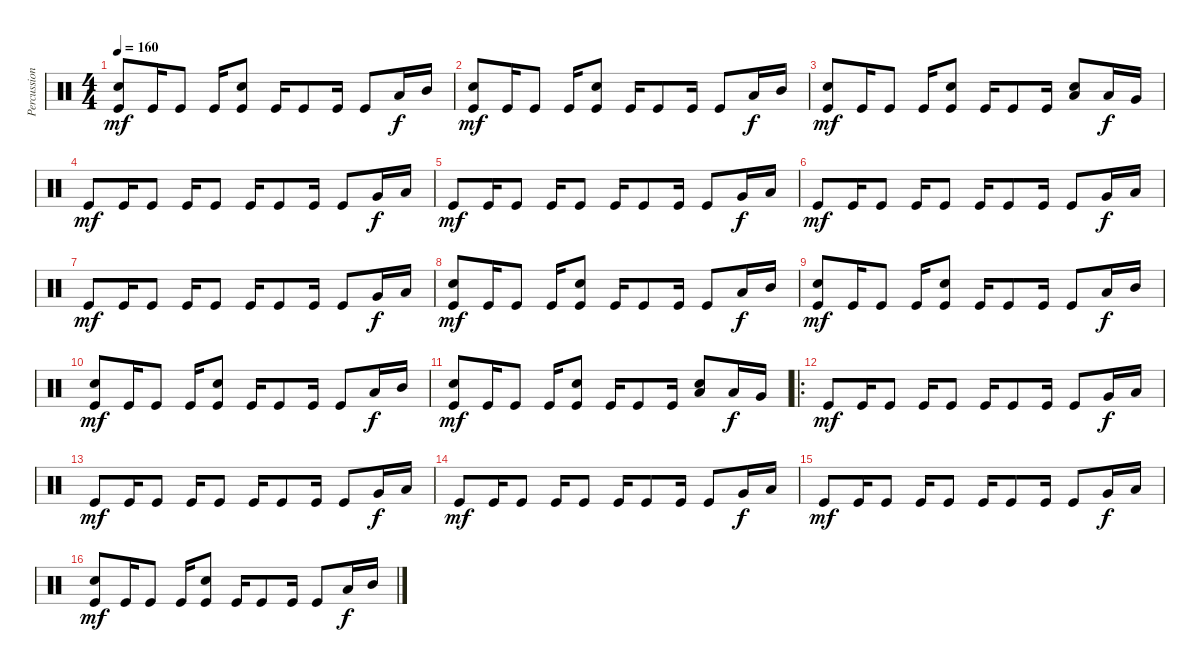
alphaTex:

\track ("Percussion" "Percussion") {instrument percussion}
\staff {score}
\articulation defaults
\ts (4 4)
\tempo 160
\clef neutral
\ks c
("Kick (hit)" "Electric Snare (hit)").8{dy mf} "Kick (hit)".16 "Kick (hit)".8 "Kick (hit)".16 ("Kick (hit)" "Electric Snare (hit)").8 "Kick (hit)".16 "Kick (hit)".8 "Kick (hit)".16 "Kick (hit)".8 "Low Tom (hit)".16{dy f} "Mid Tom (hit)".16 |
("Kick (hit)" "Electric Snare (hit)").8{dy mf} "Kick (hit)".16 "Kick (hit)".8 "Kick (hit)".16 ("Kick (hit)" "Snare (hit) 2").8 "Kick (hit)".16 "Kick (hit)".8 "Kick (hit)".16 "Kick (hit)".8 "Low Tom (hit)".16{dy f} "Mid Tom (hit)".16 |
("Kick (hit)" "Electric Snare (hit)").8{dy mf} "Kick (hit)".16 "Kick (hit)".8 "Kick (hit)".16 ("Kick (hit)" "Electric Snare (hit)").8 "Kick (hit)".16 "Kick (hit)".8 "Kick (hit)".16 ("Low Tom (hit)" "Electric Snare (hit)").8 "Low Tom (hit)".16{dy f} "Very Low Tom (hit)".16 |
"Kick (hit)".8{dy mf} "Kick (hit)".16 "Kick (hit)".8 "Kick (hit)".16 "Kick (hit)".8 "Kick (hit)".16 "Kick (hit)".8 "Kick (hit)".16 "Kick (hit)".8 "Very Low Tom (hit)".16{dy f} "Low Tom (hit)".16 |
"Kick (hit)".8{dy mf} "Kick (hit)".16 "Kick (hit)".8 "Kick (hit)".16 "Kick (hit)".8 "Kick (hit)".16 "Kick (hit)".8 "Kick (hit)".16 "Kick (hit)".8 "Very Low Tom (hit)".16{dy f} "Low Tom (hit)".16 |
"Kick (hit)".8{dy mf} "Kick (hit)".16 "Kick (hit)".8 "Kick (hit)".16 "Kick (hit)".8 "Kick (hit)".16 "Kick (hit)".8 "Kick (hit)".16 "Kick (hit)".8 "Very Low Tom (hit)".16{dy f} "Low Tom (hit)".16 |
"Kick (hit)".8{dy mf} "Kick (hit)".16 "Kick (hit)".8 "Kick (hit)".16 "Kick (hit)".8 "Kick (hit)".16 "Kick (hit)".8 "Kick (hit)".16 "Kick (hit)".8 "Very Low Tom (hit)".16{dy f} "Low Tom (hit)".16 |
("Kick (hit)" "Electric Snare (hit)").8{dy mf} "Kick (hit)".16 "Kick (hit)".8 "Kick (hit)".16 ("Kick (hit)" "Snare (hit) 2").8 "Kick (hit)".16 "Kick (hit)".8 "Kick (hit)".16 "Kick (hit)".8 "Low Tom (hit)".16{dy f} "Mid Tom (hit)".16 |
("Kick (hit)" "Electric Snare (hit)").8{dy mf} "Kick (hit)".16 "Kick (hit)".8 "Kick (hit)".16 ("Kick (hit)" "Electric Snare (hit)").8 "Kick (hit)".16 "Kick (hit)".8 "Kick (hit)".16 "Kick (hit)".8 "Low Tom (hit)".16{dy f} "Mid Tom (hit)".16 |
("Kick (hit)" "Electric Snare (hit)").8{dy mf} "Kick (hit)".16 "Kick (hit)".8 "Kick (hit)".16 ("Kick (hit)" "Snare (hit) 2").8 "Kick (hit)".16 "Kick (hit)".8 "Kick (hit)".16 "Kick (hit)".8 "Low Tom (hit)".16{dy f} "Mid Tom (hit)".16 |
("Kick (hit)" "Electric Snare (hit)").8{dy mf} "Kick (hit)".16 "Kick (hit)".8 "Kick (hit)".16 ("Kick (hit)" "Electric Snare (hit)").8 "Kick (hit)".16 "Kick (hit)".8 "Kick (hit)".16 ("Low Tom (hit)" "Electric Snare (hit)").8 "Low Tom (hit)".16{dy f} "Very Low Tom (hit)".16 |
\ro "Kick (hit)".8{dy mf} "Kick (hit)".16 "Kick (hit)".8 "Kick (hit)".16 "Kick (hit)".8 "Kick (hit)".16 "Kick (hit)".8 "Kick (hit)".16 "Kick (hit)".8 "Very Low Tom (hit)".16{dy f} "Low Tom (hit)".16
|
"Kick (hit)".8{dy mf} "Kick (hit)".16 "Kick (hit)".8 "Kick (hit)".16 "Kick (hit)".8 "Kick (hit)".16 "Kick (hit)".8 "Kick (hit)".16 "Kick (hit)".8 "Very Low Tom (hit)".16{dy f} "Low Tom (hit)".16 |
"Kick (hit)".8{dy mf} "Kick (hit)".16 "Kick (hit)".8 "Kick (hit)".16 "Kick (hit)".8 "Kick (hit)".16 "Kick (hit)".8 "Kick (hit)".16 "Kick (hit)".8 "Very Low Tom (hit)".16{dy f} "Low Tom (hit)".16 |
"Kick (hit)".8{dy mf} "Kick (hit)".16 "Kick (hit)".8 "Kick (hit)".16 "Kick (hit)".8 "Kick (hit)".16 "Kick (hit)".8 "Kick (hit)".16 "Kick (hit)".8 "Very Low Tom (hit)".16{dy f} "Low Tom (hit)".16 |
("Kick (hit)" "Electric Snare (hit)").8{dy mf} "Kick (hit)".16 "Kick (hit)".8 "Kick (hit)".16 ("Kick (hit)" "Snare (hit) 2").8 "Kick (hit)".16 "Kick (hit)".8 "Kick (hit)".16 "Kick (hit)".8 "Low Tom (hit)".16{dy f} "Mid Tom (hit)".16
